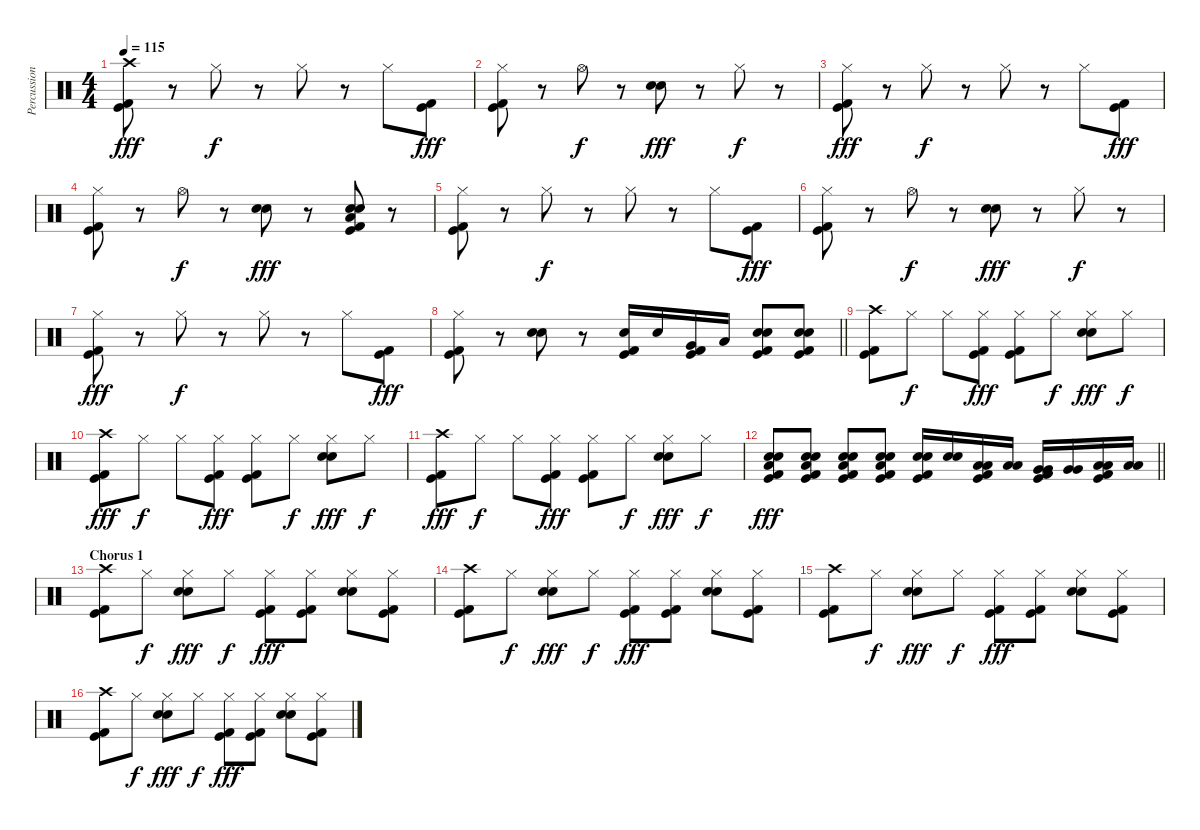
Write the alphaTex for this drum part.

\track ("Percussion" "Percussion") {instrument percussion}
\staff {score}
\articulation defaults
\ts (4 4)
\tempo 115
\clef neutral
\ks c
("Crash high (hit)" "Kick (hit) 2" "Kick (hit)").8{dy fff} r.8 "Hi-Hat (closed)".8{dy f} r.8 "Hi-Hat (closed)".8 r.8 "Hi-Hat (closed)".8 ("Kick (hit) 2" "Kick (hit)").8{dy fff} |
("Hi-Hat (closed)" "Kick (hit) 2" "Kick (hit)").8 r.8 "Hi-Hat (open)".8{dy f} r.8 ("Electric Snare (hit)" "Snare (hit) 2").8{dy fff} r.8 "Hi-Hat (closed)".8{dy f} r.8 |
("Hi-Hat (closed)" "Kick (hit) 2" "Kick (hit)").8{dy fff} r.8 "Hi-Hat (closed)".8{dy f} r.8 "Hi-Hat (closed)".8 r.8 "Hi-Hat (closed)".8 ("Kick (hit) 2" "Kick (hit)").8{dy fff} |
("Hi-Hat (closed)" "Kick (hit) 2" "Kick (hit)").8 r.8 "Hi-Hat (open)".8{dy f} r.8 ("Electric Snare (hit)" "Snare (hit) 2").8{dy fff} r.8 ("Electric Snare (hit)" "Snare (hit) 2" "Low Floor Tom (hit)" "Kick (hit) 2" "Kick (hit)").8 r.8 |
("Hi-Hat (closed)" "Kick (hit) 2" "Kick (hit)").8 r.8 "Hi-Hat (closed)".8{dy f} r.8 "Hi-Hat (closed)".8 r.8 "Hi-Hat (closed)".8 ("Kick (hit) 2" "Kick (hit)").8{dy fff} |
("Hi-Hat (closed)" "Kick (hit) 2" "Kick (hit)").8 r.8 "Hi-Hat (open)".8{dy f} r.8 ("Electric Snare (hit)" "Snare (hit) 2").8{dy fff} r.8 "Hi-Hat (closed)".8{dy f} r.8 |
("Hi-Hat (closed)" "Kick (hit) 2" "Kick (hit)").8{dy fff} r.8 "Hi-Hat (closed)".8{dy f} r.8 "Hi-Hat (closed)".8 r.8 "Hi-Hat (closed)".8 ("Kick (hit) 2" "Kick (hit)").8{dy fff} |
\barLineRight lightlight
("Hi-Hat (closed)" "Kick (hit) 2" "Kick (hit)").8 r.8 ("Electric Snare (hit)" "Snare (hit) 2").8 r.8 ("Snare (hit) 2" "Kick (hit) 2" "Kick (hit)").16 "Snare (hit) 2".16 ("Very Low Tom (hit)" "Kick (hit) 2" "Kick (hit)").16 "Low Floor Tom (hit)".16 ("Electric Snare (hit)" "Snare (hit) 2" "Kick (hit) 2" "Kick (hit)").8 ("Electric Snare (hit)" "Snare (hit) 2" "Kick (hit) 2" "Kick (hit)").8 |
("Crash high (hit)" "Kick (hit) 2" "Kick (hit)").8 "Hi-Hat (closed)".8{dy f} "Hi-Hat (closed)".8 ("Hi-Hat (closed)" "Kick (hit) 2" "Kick (hit)").8{dy fff} ("Hi-Hat (closed)" "Kick (hit) 2" "Kick (hit)").8 "Hi-Hat (closed)".8{dy f} ("Hi-Hat (closed)" "Electric Snare (hit)" "Snare (hit) 2").8{dy fff} "Hi-Hat (closed)".8{dy f} |
("Crash high (hit)" "Kick (hit) 2" "Kick (hit)").8{dy fff} "Hi-Hat (closed)".8{dy f} "Hi-Hat (closed)".8 ("Hi-Hat (closed)" "Kick (hit) 2" "Kick (hit)").8{dy fff} ("Hi-Hat (closed)" "Kick (hit) 2" "Kick (hit)").8 "Hi-Hat (closed)".8{dy f} ("Hi-Hat (closed)" "Electric Snare (hit)" "Snare (hit) 2").8{dy fff} "Hi-Hat (closed)".8{dy f} |
("Crash high (hit)" "Kick (hit) 2" "Kick (hit)").8{dy fff} "Hi-Hat (closed)".8{dy f} "Hi-Hat (closed)".8 ("Hi-Hat (closed)" "Kick (hit) 2" "Kick (hit)").8{dy fff} ("Hi-Hat (closed)" "Kick (hit) 2" "Kick (hit)").8 "Hi-Hat (closed)".8{dy f} ("Hi-Hat (closed)" "Electric Snare (hit)" "Snare (hit) 2").8{dy fff} "Hi-Hat (closed)".8{dy f} |
\barLineRight lightlight
("Low Floor Tom (hit)" "Electric Snare (hit)" "Snare (hit) 2" "Kick (hit) 2" "Kick (hit)").8{dy fff} ("Low Floor Tom (hit)" "Electric Snare (hit)" "Snare (hit) 2" "Kick (hit) 2" "Kick (hit)").8 ("Low Floor Tom (hit)" "Electric Snare (hit)" "Snare (hit) 2" "Kick (hit) 2" "Kick (hit)").8 ("Low Floor Tom (hit)" "Electric Snare (hit)" "Snare (hit) 2" "Kick (hit) 2" "Kick (hit)").8 ("Electric Snare (hit)" "Snare (hit) 2" "Kick (hit) 2" "Kick (hit)").16 ("Electric Snare (hit)" "Snare (hit) 2").16 ("Low Tom (hit)" "Low Tom (hit)" "Kick (hit) 2" "Kick (hit)").16 ("Low Tom (hit)" "Low Tom (hit)").16 ("Very Low Tom (hit)" "Very Low Tom (hit)" "Kick (hit) 2" "Kick (hit)").16 ("Very Low Tom (hit)" "Very Low Tom (hit)").16 ("Low Floor Tom (hit)" "Low Floor Tom (hit)" "Kick (hit) 2" "Kick (hit)").16 ("Low Floor Tom (hit)" "Low Floor Tom (hit)").16 |
\section ("" "Chorus 1")
("Crash high (hit)" "Kick (hit) 2" "Kick (hit)").8 "Hi-Hat (closed)".8{dy f} ("Hi-Hat (closed)" "Electric Snare (hit)" "Snare (hit) 2").8{dy fff} "Hi-Hat (closed)".8{dy f} ("Hi-Hat (closed)" "Kick (hit) 2" "Kick (hit)").8{dy fff} ("Hi-Hat (closed)" "Kick (hit) 2" "Kick (hit)").8 ("Hi-Hat (closed)" "Electric Snare (hit)" "Snare (hit) 2").8 ("Hi-Hat (closed)" "Kick (hit) 2" "Kick (hit)").8 |
("Crash high (hit)" "Kick (hit) 2" "Kick (hit)").8 "Hi-Hat (closed)".8{dy f} ("Hi-Hat (closed)" "Electric Snare (hit)" "Snare (hit) 2").8{dy fff} "Hi-Hat (closed)".8{dy f} ("Hi-Hat (closed)" "Kick (hit) 2" "Kick (hit)").8{dy fff} ("Hi-Hat (closed)" "Kick (hit) 2" "Kick (hit)").8 ("Hi-Hat (closed)" "Electric Snare (hit)" "Snare (hit) 2").8 ("Hi-Hat (closed)" "Kick (hit) 2" "Kick (hit)").8 |
("Crash high (hit)" "Kick (hit) 2" "Kick (hit)").8 "Hi-Hat (closed)".8{dy f} ("Hi-Hat (closed)" "Electric Snare (hit)" "Snare (hit) 2").8{dy fff} "Hi-Hat (closed)".8{dy f} ("Hi-Hat (closed)" "Kick (hit) 2" "Kick (hit)").8{dy fff} ("Hi-Hat (closed)" "Kick (hit) 2" "Kick (hit)").8 ("Hi-Hat (closed)" "Electric Snare (hit)" "Snare (hit) 2").8 ("Hi-Hat (closed)" "Kick (hit) 2" "Kick (hit)").8 |
("Crash high (hit)" "Kick (hit) 2" "Kick (hit)").8 "Hi-Hat (closed)".8{dy f} ("Hi-Hat (closed)" "Electric Snare (hit)" "Snare (hit) 2").8{dy fff} "Hi-Hat (closed)".8{dy f} ("Hi-Hat (closed)" "Kick (hit) 2" "Kick (hit)").8{dy fff} ("Hi-Hat (closed)" "Kick (hit) 2" "Kick (hit)").8 ("Hi-Hat (closed)" "Electric Snare (hit)" "Snare (hit) 2").8 ("Hi-Hat (closed)" "Kick (hit) 2" "Kick (hit)").8
